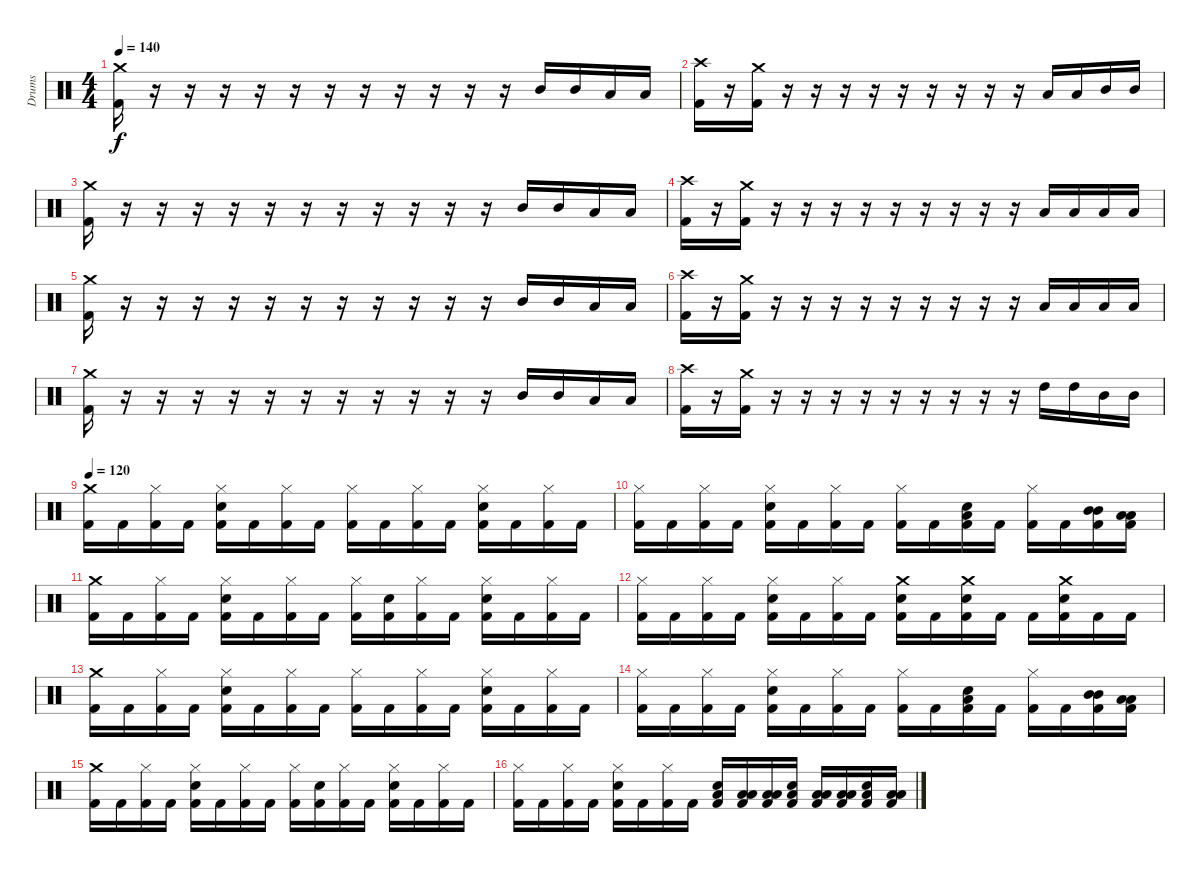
\track ("Drums" "Drums") {instrument percussion}
\staff {score}
\articulation defaults
\ts (4 4)
\tempo 140
\clef neutral
\ks c
("Crash medium (hit)" "Kick (hit) 2").16{dy f} r.16 r.16 r.16 r.16 r.16 r.16 r.16 r.16 r.16 r.16 r.16 "Mid Tom (hit)".16 "Mid Tom (hit)".16 "Low Tom (hit)".16 "Low Tom (hit)".16 |
("Crash high (hit)" "Kick (hit) 2").16 r.16 ("Crash medium (hit)" "Kick (hit) 2").16 r.16 r.16 r.16 r.16 r.16 r.16 r.16 r.16 r.16 "Low Tom (hit)".16 "Low Tom (hit)".16 "Mid Tom (hit)".16 "Mid Tom (hit)".16 |
("Crash medium (hit)" "Kick (hit) 2").16 r.16 r.16 r.16 r.16 r.16 r.16 r.16 r.16 r.16 r.16 r.16 "Mid Tom (hit)".16 "Mid Tom (hit)".16 "Low Tom (hit)".16 "Low Tom (hit)".16 |
("Crash high (hit)" "Kick (hit) 2").16 r.16 ("Crash medium (hit)" "Kick (hit) 2").16 r.16 r.16 r.16 r.16 r.16 r.16 r.16 r.16 r.16 "Low Tom (hit)".16 "Low Tom (hit)".16 "Low Tom (hit)".16 "Low Tom (hit)".16 |
("Crash medium (hit)" "Kick (hit) 2").16 r.16 r.16 r.16 r.16 r.16 r.16 r.16 r.16 r.16 r.16 r.16 "Mid Tom (hit)".16 "Mid Tom (hit)".16 "Low Tom (hit)".16 "Low Tom (hit)".16 |
("Crash high (hit)" "Kick (hit) 2").16 r.16 ("Crash medium (hit)" "Kick (hit) 2").16 r.16 r.16 r.16 r.16 r.16 r.16 r.16 r.16 r.16 "Low Tom (hit)".16 "Low Tom (hit)".16 "Low Tom (hit)".16 "Low Tom (hit)".16 |
("Crash medium (hit)" "Kick (hit) 2").16 r.16 r.16 r.16 r.16 r.16 r.16 r.16 r.16 r.16 r.16 r.16 "Mid Tom (hit)".16 "Mid Tom (hit)".16 "Low Tom (hit)".16 "Low Tom (hit)".16 |
("Crash high (hit)" "Kick (hit) 2").16 r.16 ("Crash medium (hit)" "Kick (hit) 2").16 r.16 r.16 r.16 r.16 r.16 r.16 r.16 r.16 r.16 "High Tom (hit)".16 "High Tom (hit)".16 "Mid Tom (hit)".16 "Mid Tom (hit)".16 |
\tempo 120
("Crash medium (hit)" "Kick (hit) 2").16 "Kick (hit) 2".16 ("Hi-Hat (closed)" "Kick (hit) 2").16 "Kick (hit) 2".16 ("Hi-Hat (closed)" "Electric Snare (hit)" "Kick (hit) 2").16 "Kick (hit) 2".16 ("Hi-Hat (closed)" "Kick (hit) 2").16 "Kick (hit) 2".16 ("Hi-Hat (closed)" "Kick (hit) 2").16 "Kick (hit) 2".16 ("Hi-Hat (closed)" "Kick (hit) 2").16 "Kick (hit) 2".16 ("Hi-Hat (closed)" "Electric Snare (hit)" "Kick (hit) 2").16 "Kick (hit) 2".16 ("Hi-Hat (closed)" "Kick (hit) 2").16 "Kick (hit) 2".16 |
("Hi-Hat (closed)" "Kick (hit) 2").16 "Kick (hit) 2".16 ("Hi-Hat (closed)" "Kick (hit) 2").16 "Kick (hit) 2".16 ("Hi-Hat (closed)" "Electric Snare (hit)" "Kick (hit) 2").16 "Kick (hit) 2".16 ("Hi-Hat (closed)" "Kick (hit) 2").16 "Kick (hit) 2".16 ("Hi-Hat (closed)" "Kick (hit) 2").16 "Kick (hit) 2".16 ("Low Floor Tom (hit)" "Electric Snare (hit)" "Kick (hit) 2").16 "Kick (hit) 2".16 ("Hi-Hat (closed)" "Kick (hit) 2").16 "Kick (hit) 2".16 ("Mid Tom (hit)" "Mid Tom (hit)" "Kick (hit) 2").16 ("Low Tom (hit)" "Low Tom (hit)" "Kick (hit) 2").16 |
("Crash medium (hit)" "Kick (hit) 2").16 "Kick (hit) 2".16 ("Hi-Hat (closed)" "Kick (hit) 2").16 "Kick (hit) 2".16 ("Hi-Hat (closed)" "Electric Snare (hit)" "Kick (hit) 2").16 "Kick (hit) 2".16 ("Hi-Hat (closed)" "Kick (hit) 2").16 "Kick (hit) 2".16 ("Hi-Hat (closed)" "Kick (hit) 2").16 ("Electric Snare (hit)" "Kick (hit) 2").16 ("Hi-Hat (closed)" "Kick (hit) 2").16 "Kick (hit) 2".16 ("Hi-Hat (closed)" "Electric Snare (hit)" "Kick (hit) 2").16 "Kick (hit) 2".16 ("Hi-Hat (closed)" "Kick (hit) 2").16 "Kick (hit) 2".16 |
("Hi-Hat (closed)" "Kick (hit) 2").16 "Kick (hit) 2".16 ("Hi-Hat (closed)" "Kick (hit) 2").16 "Kick (hit) 2".16 ("Hi-Hat (closed)" "Electric Snare (hit)" "Kick (hit) 2").16 "Kick (hit) 2".16 ("Hi-Hat (closed)" "Kick (hit) 2").16 "Kick (hit) 2".16 ("Crash medium (hit)" "Electric Snare (hit)" "Kick (hit) 2").16 "Kick (hit) 2".16 ("Crash medium (hit)" "Electric Snare (hit)" "Kick (hit) 2").16 "Kick (hit) 2".16 "Kick (hit) 2".16 ("Crash medium (hit)" "Electric Snare (hit)" "Kick (hit) 2").16 "Kick (hit) 2".16 "Kick (hit) 2".16 |
("Crash medium (hit)" "Kick (hit) 2").16 "Kick (hit) 2".16 ("Hi-Hat (closed)" "Kick (hit) 2").16 "Kick (hit) 2".16 ("Hi-Hat (closed)" "Electric Snare (hit)" "Kick (hit) 2").16 "Kick (hit) 2".16 ("Hi-Hat (closed)" "Kick (hit) 2").16 "Kick (hit) 2".16 ("Hi-Hat (closed)" "Kick (hit) 2").16 "Kick (hit) 2".16 ("Hi-Hat (closed)" "Kick (hit) 2").16 "Kick (hit) 2".16 ("Hi-Hat (closed)" "Electric Snare (hit)" "Kick (hit) 2").16 "Kick (hit) 2".16 ("Hi-Hat (closed)" "Kick (hit) 2").16 "Kick (hit) 2".16 |
("Hi-Hat (closed)" "Kick (hit) 2").16 "Kick (hit) 2".16 ("Hi-Hat (closed)" "Kick (hit) 2").16 "Kick (hit) 2".16 ("Hi-Hat (closed)" "Electric Snare (hit)" "Kick (hit) 2").16 "Kick (hit) 2".16 ("Hi-Hat (closed)" "Kick (hit) 2").16 "Kick (hit) 2".16 ("Hi-Hat (closed)" "Kick (hit) 2").16 "Kick (hit) 2".16 ("Low Floor Tom (hit)" "Electric Snare (hit)" "Kick (hit) 2").16 "Kick (hit) 2".16 ("Hi-Hat (closed)" "Kick (hit) 2").16 "Kick (hit) 2".16 ("Mid Tom (hit)" "Mid Tom (hit)" "Kick (hit) 2").16 ("Low Tom (hit)" "Low Tom (hit)" "Kick (hit) 2").16 |
("Crash medium (hit)" "Kick (hit) 2").16 "Kick (hit) 2".16 ("Hi-Hat (closed)" "Kick (hit) 2").16 "Kick (hit) 2".16 ("Hi-Hat (closed)" "Electric Snare (hit)" "Kick (hit) 2").16 "Kick (hit) 2".16 ("Hi-Hat (closed)" "Kick (hit) 2").16 "Kick (hit) 2".16 ("Hi-Hat (closed)" "Kick (hit) 2").16 ("Electric Snare (hit)" "Kick (hit) 2").16 ("Hi-Hat (closed)" "Kick (hit) 2").16 "Kick (hit) 2".16 ("Hi-Hat (closed)" "Electric Snare (hit)" "Kick (hit) 2").16 "Kick (hit) 2".16 ("Hi-Hat (closed)" "Kick (hit) 2").16 "Kick (hit) 2".16 |
("Hi-Hat (closed)" "Kick (hit) 2").16 "Kick (hit) 2".16 ("Hi-Hat (closed)" "Kick (hit) 2").16 "Kick (hit) 2".16 ("Hi-Hat (closed)" "Electric Snare (hit)" "Kick (hit) 2").16 "Kick (hit) 2".16 ("Hi-Hat (closed)" "Kick (hit) 2").16 "Kick (hit) 2".16 ("Low Floor Tom (hit)" "Electric Snare (hit)" "Kick (hit) 2").16 ("Low Floor Tom (hit)" "Low Floor Tom (hit)" "Kick (hit) 2").16 ("Low Floor Tom (hit)" "Low Floor Tom (hit)" "Kick (hit) 2").16 ("Low Floor Tom (hit)" "Electric Snare (hit)" "Kick (hit) 2").16 ("Low Floor Tom (hit)" "Low Floor Tom (hit)" "Kick (hit) 2").16 ("Low Floor Tom (hit)" "Low Floor Tom (hit)" "Kick (hit) 2").16 ("Low Floor Tom (hit)" "Electric Snare (hit)" "Kick (hit) 2").16 ("Low Floor Tom (hit)" "Low Floor Tom (hit)" "Kick (hit) 2").16
